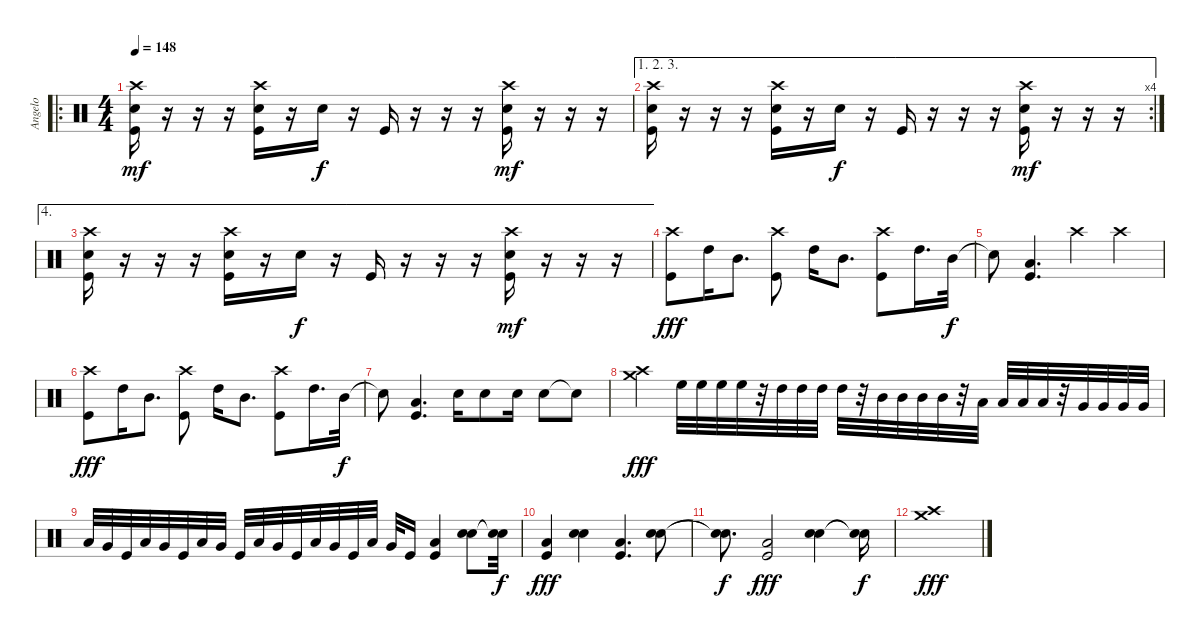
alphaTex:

\track ("Angelo" "Angelo") {instrument percussion}
\staff {score}
\articulation defaults
\ro
\ts (4 4)
\tempo 148
\clef neutral
\ks c
("Crash high (hit)" "Snare (hit) 2" "Kick (hit)").16{dy mf} r.16 r.16 r.16 ("Crash high (hit)" "Snare (hit) 2" "Kick (hit)").16 r.16 "Snare (hit) 2".16{dy f} r.16 "Kick (hit)".16 r.16 r.16 r.16 ("Crash high (hit)" "Snare (hit) 2" "Kick (hit)").16{dy mf} r.16 r.16 r.16 |
\ae (1 2 3)
\rc 4
("Crash high (hit)" "Snare (hit) 2" "Kick (hit)").16 r.16 r.16 r.16 ("Crash high (hit)" "Snare (hit) 2" "Kick (hit)").16 r.16 "Snare (hit) 2".16{dy f} r.16 "Kick (hit)".16 r.16 r.16 r.16 ("Crash high (hit)" "Snare (hit) 2" "Kick (hit)").16{dy mf} r.16 r.16 r.16 |
\ae 4
("Crash high (hit)" "Snare (hit) 2" "Kick (hit)").16 r.16 r.16 r.16 ("Crash high (hit)" "Snare (hit) 2" "Kick (hit)").16 r.16 "Snare (hit) 2".16{dy f} r.16 "Kick (hit)".16 r.16 r.16 r.16 ("Crash high (hit)" "Snare (hit) 2" "Kick (hit)").16{dy mf} r.16 r.16 r.16 |
("Crash high (hit)" "Kick (hit)").8{dy fff} "High Tom (hit)".16 "Mid Tom (hit)".8{d} ("Crash high (hit)" "Kick (hit)").8 "High Tom (hit)".16 "Mid Tom (hit)".8{d} ("Crash high (hit)" "Kick (hit)").8 "High Tom (hit)".16{d} "Mid Tom (hit)".32{dy f} |
"Snare (hit)"{t}.8 ("Low Tom (hit)" "Kick (hit)").4{d} "Crash high (hit)".4 "Crash high (hit)".4 |
("Crash high (hit)" "Kick (hit)").8{dy fff} "High Tom (hit)".16 "Mid Tom (hit)".8{d} ("Crash high (hit)" "Kick (hit)").8 "High Tom (hit)".16 "Mid Tom (hit)".8{d} ("Crash high (hit)" "Kick (hit)").8 "High Tom (hit)".16{d} "Mid Tom (hit)".32{dy f} |
"Snare (hit)"{t}.8 ("Low Tom (hit)" "Kick (hit)").4{d} "Snare (hit) 2".16 "Snare (hit) 2".8 "Snare (hit) 2".16 "Snare (hit) 2".8 "Snare (hit)"{t}.8 |
("Crash medium (hit)" "Crash high (hit)").4{dy fff} "High Floor Tom (hit)".32 "High Floor Tom (hit)".32 "High Floor Tom (hit)".32 "High Floor Tom (hit)".32 r.32 "High Tom (hit)".32 "High Tom (hit)".32 "High Tom (hit)".32 "High Tom (hit)".32 r.32 "Mid Tom (hit)".32 "Mid Tom (hit)".32 "Mid Tom (hit)".32 "Mid Tom (hit)".32 r.32 "Low Tom (hit)".32 "Low Tom (hit)".32 "Low Tom (hit)".32 "Low Tom (hit)".32 r.32 "Very Low Tom (hit)".32 "Very Low Tom (hit)".32 "Very Low Tom (hit)".32 "Very Low Tom (hit)".32 |
"Low Tom (hit)".32 "Very Low Tom (hit)".32 "Kick (hit)".32 "Low Tom (hit)".32 "Very Low Tom (hit)".32 "Kick (hit)".32 "Low Tom (hit)".32 "Very Low Tom (hit)".32 "Kick (hit)".32 "Low Tom (hit)".32 "Very Low Tom (hit)".32 "Kick (hit)".32 "Low Tom (hit)".32 "Very Low Tom (hit)".32 "Kick (hit)".32 "Low Tom (hit)".32 "Very Low Tom (hit)".32 "Kick (hit)".16 ("Low Tom (hit)" "Kick (hit)").4 ("Snare (hit) 2" "Snare (hit) 2").8 ("Snare (hit)"{t} "Snare (hit)"{t}).32{dy f} |
("Low Tom (hit)" "Kick (hit)").4{dy fff} ("Snare (hit) 2" "Snare (hit) 2").4 ("Low Tom (hit)" "Kick (hit)").4{d} ("Snare (hit) 2" "Snare (hit) 2").8 |
("Snare (hit)"{t} "Snare (hit)"{t}).8{d dy f} ("Low Tom (hit)" "Kick (hit)").2{dy fff} ("Snare (hit) 2" "Snare (hit) 2").4 ("Snare (hit)"{t} "Snare (hit)"{t}).16{dy f} |
("Crash high (hit)" "Crash medium (hit)").1{dy fff}
